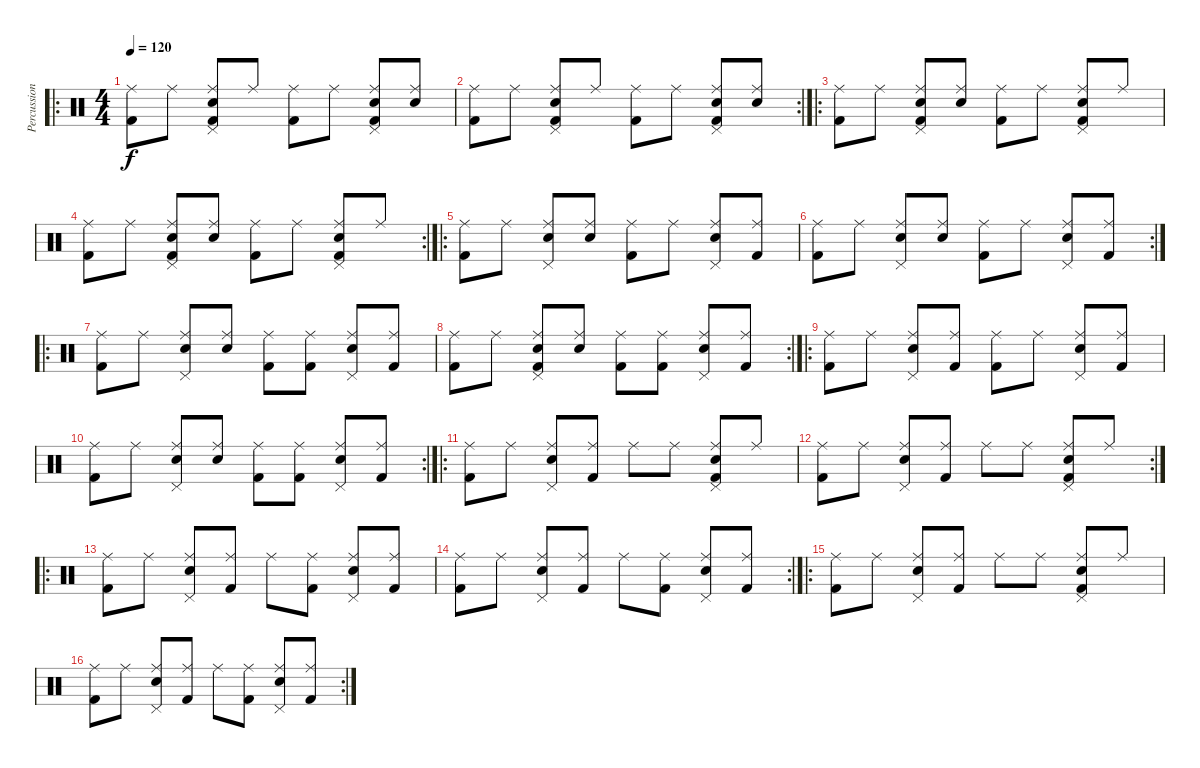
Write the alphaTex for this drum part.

\track ("Percussion" "Percussion") {instrument percussion}
\staff {score}
\articulation defaults
\ro
\ts (4 4)
\tempo 120
\clef neutral
\ks c
("Ride (middle)" "Kick (hit) 2").8{dy f} "Ride (middle)".8 ("Ride (middle)" "Electric Snare (hit)" "Kick (hit) 2" "Pedal Hi-Hat (hit)").8 "Ride (middle)".8 ("Ride (middle)" "Kick (hit) 2").8 "Ride (middle)".8 ("Ride (middle)" "Electric Snare (hit)" "Kick (hit) 2" "Pedal Hi-Hat (hit)").8 ("Ride (middle)" "Electric Snare (hit)").8 |
\rc 2
("Ride (middle)" "Kick (hit) 2").8 "Ride (middle)".8 ("Ride (middle)" "Electric Snare (hit)" "Kick (hit) 2" "Pedal Hi-Hat (hit)").8 "Ride (middle)".8 ("Ride (middle)" "Kick (hit) 2").8 "Ride (middle)".8 ("Ride (middle)" "Electric Snare (hit)" "Kick (hit) 2" "Pedal Hi-Hat (hit)").8 ("Ride (middle)" "Electric Snare (hit)").8 |
\ro
("Ride (middle)" "Kick (hit) 2").8 "Ride (middle)".8 ("Ride (middle)" "Electric Snare (hit)" "Kick (hit) 2" "Pedal Hi-Hat (hit)").8 ("Ride (middle)" "Electric Snare (hit)").8 ("Ride (middle)" "Kick (hit) 2").8 "Ride (middle)".8 ("Ride (middle)" "Electric Snare (hit)" "Kick (hit) 2" "Pedal Hi-Hat (hit)").8 "Ride (middle)".8 |
\rc 2
("Ride (middle)" "Kick (hit) 2").8 "Ride (middle)".8 ("Ride (middle)" "Electric Snare (hit)" "Kick (hit) 2" "Pedal Hi-Hat (hit)").8 ("Ride (middle)" "Electric Snare (hit)").8 ("Ride (middle)" "Kick (hit) 2").8 "Ride (middle)".8 ("Ride (middle)" "Electric Snare (hit)" "Kick (hit) 2" "Pedal Hi-Hat (hit)").8 "Ride (middle)".8 |
\ro
("Ride (middle)" "Kick (hit) 2").8 "Ride (middle)".8 ("Ride (middle)" "Electric Snare (hit)" "Pedal Hi-Hat (hit)").8 ("Ride (middle)" "Electric Snare (hit)").8 ("Ride (middle)" "Kick (hit) 2").8 "Ride (middle)".8 ("Ride (middle)" "Electric Snare (hit)" "Pedal Hi-Hat (hit)").8 ("Ride (middle)" "Kick (hit) 2").8 |
\rc 2
("Ride (middle)" "Kick (hit) 2").8 "Ride (middle)".8 ("Ride (middle)" "Electric Snare (hit)" "Pedal Hi-Hat (hit)").8 ("Ride (middle)" "Electric Snare (hit)").8 ("Ride (middle)" "Kick (hit) 2").8 "Ride (middle)".8 ("Ride (middle)" "Electric Snare (hit)" "Pedal Hi-Hat (hit)").8 ("Ride (middle)" "Kick (hit) 2").8 |
\ro
("Ride (middle)" "Kick (hit) 2").8 "Ride (middle)".8 ("Ride (middle)" "Electric Snare (hit)" "Pedal Hi-Hat (hit)").8 ("Ride (middle)" "Electric Snare (hit)").8 ("Ride (middle)" "Kick (hit) 2").8 ("Ride (middle)" "Kick (hit) 2").8 ("Ride (middle)" "Electric Snare (hit)" "Pedal Hi-Hat (hit)").8 ("Ride (middle)" "Kick (hit) 2").8 |
\rc 2
("Ride (middle)" "Kick (hit) 2").8 "Ride (middle)".8 ("Ride (middle)" "Electric Snare (hit)" "Kick (hit) 2" "Pedal Hi-Hat (hit)").8 ("Ride (middle)" "Electric Snare (hit)").8 ("Ride (middle)" "Kick (hit) 2").8 ("Ride (middle)" "Kick (hit) 2").8 ("Ride (middle)" "Electric Snare (hit)" "Pedal Hi-Hat (hit)").8 ("Ride (middle)" "Kick (hit) 2").8 |
\ro
("Ride (middle)" "Kick (hit) 2").8 "Ride (middle)".8 ("Ride (middle)" "Electric Snare (hit)" "Pedal Hi-Hat (hit)").8 ("Ride (middle)" "Kick (hit) 2").8 ("Ride (middle)" "Kick (hit) 2").8 "Ride (middle)".8 ("Ride (middle)" "Electric Snare (hit)" "Pedal Hi-Hat (hit)").8 ("Ride (middle)" "Kick (hit) 2").8 |
\rc 2
("Ride (middle)" "Kick (hit) 2").8 "Ride (middle)".8 ("Ride (middle)" "Electric Snare (hit)" "Pedal Hi-Hat (hit)").8 ("Ride (middle)" "Electric Snare (hit)").8 ("Ride (middle)" "Kick (hit) 2").8 ("Ride (middle)" "Kick (hit) 2").8 ("Ride (middle)" "Electric Snare (hit)" "Pedal Hi-Hat (hit)").8 ("Ride (middle)" "Kick (hit) 2").8 |
\ro
("Ride (middle)" "Kick (hit) 2").8 "Ride (middle)".8 ("Ride (middle)" "Electric Snare (hit)" "Pedal Hi-Hat (hit)").8 ("Ride (middle)" "Kick (hit) 2").8 "Ride (middle)".8 "Ride (middle)".8 ("Ride (middle)" "Electric Snare (hit)" "Kick (hit) 2" "Pedal Hi-Hat (hit)").8 "Ride (middle)".8 |
\rc 2
("Ride (middle)" "Kick (hit) 2").8 "Ride (middle)".8 ("Ride (middle)" "Electric Snare (hit)" "Pedal Hi-Hat (hit)").8 ("Ride (middle)" "Kick (hit) 2").8 "Ride (middle)".8 "Ride (middle)".8 ("Ride (middle)" "Electric Snare (hit)" "Kick (hit) 2" "Pedal Hi-Hat (hit)").8 "Ride (middle)".8 |
\ro
("Ride (middle)" "Kick (hit) 2").8 "Ride (middle)".8 ("Ride (middle)" "Electric Snare (hit)" "Pedal Hi-Hat (hit)").8 ("Ride (middle)" "Kick (hit) 2").8 "Ride (middle)".8 ("Ride (middle)" "Kick (hit) 2").8 ("Ride (middle)" "Electric Snare (hit)" "Pedal Hi-Hat (hit)").8 ("Ride (middle)" "Kick (hit) 2").8 |
\rc 2
("Ride (middle)" "Kick (hit) 2").8 "Ride (middle)".8 ("Ride (middle)" "Electric Snare (hit)" "Pedal Hi-Hat (hit)").8 ("Ride (middle)" "Kick (hit) 2").8 "Ride (middle)".8 ("Ride (middle)" "Kick (hit) 2").8 ("Ride (middle)" "Electric Snare (hit)" "Pedal Hi-Hat (hit)").8 ("Ride (middle)" "Kick (hit) 2").8 |
\ro
("Ride (middle)" "Kick (hit) 2").8 "Ride (middle)".8 ("Ride (middle)" "Electric Snare (hit)" "Pedal Hi-Hat (hit)").8 ("Ride (middle)" "Kick (hit) 2").8 "Ride (middle)".8 "Ride (middle)".8 ("Ride (middle)" "Electric Snare (hit)" "Kick (hit) 2" "Pedal Hi-Hat (hit)").8 "Ride (middle)".8 |
\rc 2
("Ride (middle)" "Kick (hit) 2").8 "Ride (middle)".8 ("Ride (middle)" "Electric Snare (hit)" "Pedal Hi-Hat (hit)").8 ("Ride (middle)" "Kick (hit) 2").8 "Ride (middle)".8 ("Ride (middle)" "Kick (hit) 2").8 ("Ride (middle)" "Electric Snare (hit)" "Pedal Hi-Hat (hit)").8 ("Ride (middle)" "Kick (hit) 2").8
